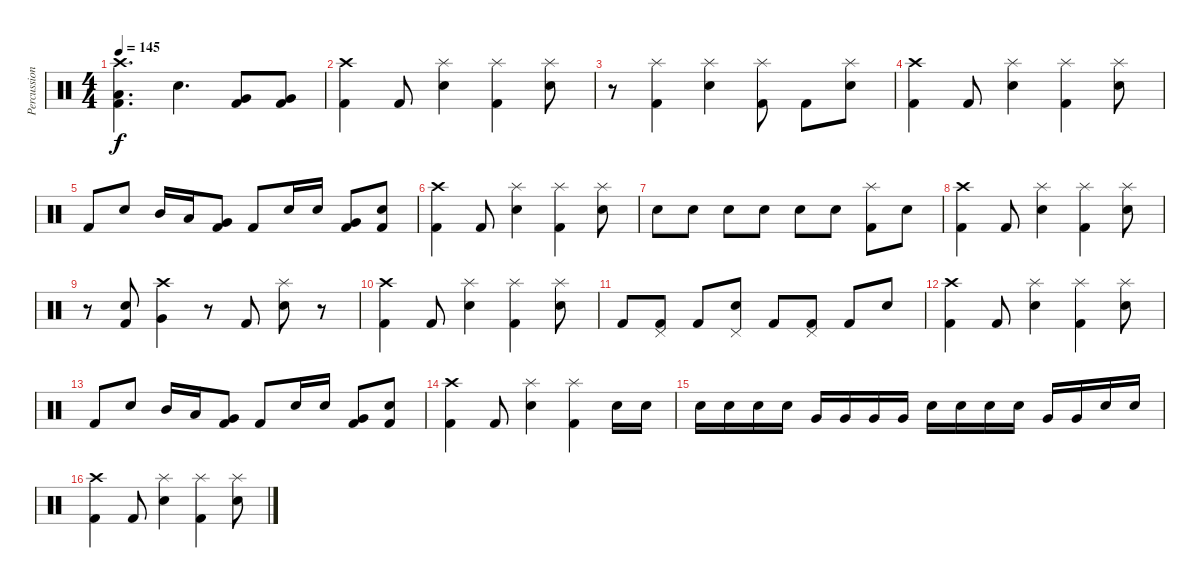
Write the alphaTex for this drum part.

\track ("Percussion" "Percussion") {instrument percussion}
\staff {score}
\articulation defaults
\ts (4 4)
\tempo 145
\clef neutral
\ks c
("Crash high (hit)" "Low Floor Tom (hit)" "Kick (hit) 2").4{d dy f} "Electric Snare (hit)".4{d} ("Very Low Tom (hit)" "Kick (hit) 2").8 ("Very Low Tom (hit)" "Kick (hit) 2").8 |
("Crash high (hit)" "Kick (hit) 2").4 "Kick (hit) 2".8 ("Splash (hit)" "Electric Snare (hit)").4 ("Splash (hit)" "Kick (hit) 2").4 ("Splash (hit)" "Electric Snare (hit)").8 |
r.8 ("Splash (hit)" "Kick (hit) 2").4 ("Splash (hit)" "Electric Snare (hit)").4 ("Splash (hit)" "Kick (hit) 2").8 "Kick (hit) 2".8 ("Splash (hit)" "Electric Snare (hit)").8 |
("Crash high (hit)" "Kick (hit) 2").4 "Kick (hit) 2".8 ("Splash (hit)" "Electric Snare (hit)").4 ("Splash (hit)" "Kick (hit) 2").4 ("Splash (hit)" "Electric Snare (hit)").8 |
"Kick (hit) 2".8 "Electric Snare (hit)".8 "Mid Tom (hit)".16 "Low Tom (hit)".16 ("Very Low Tom (hit)" "Kick (hit) 2").8 "Kick (hit) 2".8 "Electric Snare (hit)".16 "Electric Snare (hit)".16 ("Very Low Tom (hit)" "Kick (hit) 2").8 ("Electric Snare (hit)" "Kick (hit) 2").8 |
("Crash high (hit)" "Kick (hit) 2").4 "Kick (hit) 2".8 ("Splash (hit)" "Electric Snare (hit)").4 ("Splash (hit)" "Kick (hit) 2").4 ("Splash (hit)" "Electric Snare (hit)").8 |
"Electric Snare (hit)".8 "Electric Snare (hit)".8 "Electric Snare (hit)".8 "Electric Snare (hit)".8 "Electric Snare (hit)".8 "Electric Snare (hit)".8 ("Splash (hit)" "Kick (hit) 2").8 "Electric Snare (hit)".8 |
("Crash high (hit)" "Kick (hit) 2").4 "Kick (hit) 2".8 ("Splash (hit)" "Electric Snare (hit)").4 ("Splash (hit)" "Kick (hit) 2").4 ("Splash (hit)" "Electric Snare (hit)").8 |
r.8 ("Electric Snare (hit)" "Kick (hit) 2").8 ("Crash high (hit)" "Very Low Tom (hit)").4 r.8 "Kick (hit) 2".8 ("Splash (hit)" "Electric Snare (hit)").8 r.8 |
("Crash high (hit)" "Kick (hit) 2").4 "Kick (hit) 2".8 ("Splash (hit)" "Electric Snare (hit)").4 ("Splash (hit)" "Kick (hit) 2").4 ("Splash (hit)" "Electric Snare (hit)").8 |
"Kick (hit) 2".8 ("Pedal Hi-Hat (hit)" "Kick (hit) 2").8 "Kick (hit) 2".8 ("Pedal Hi-Hat (hit)" "Electric Snare (hit)").8 "Kick (hit) 2".8 ("Pedal Hi-Hat (hit)" "Kick (hit) 2").8 "Kick (hit) 2".8 "Electric Snare (hit)".8 |
("Crash high (hit)" "Kick (hit) 2").4 "Kick (hit) 2".8 ("Splash (hit)" "Electric Snare (hit)").4 ("Splash (hit)" "Kick (hit) 2").4 ("Splash (hit)" "Electric Snare (hit)").8 |
"Kick (hit) 2".8 "Electric Snare (hit)".8 "Mid Tom (hit)".16 "Low Tom (hit)".16 ("Very Low Tom (hit)" "Kick (hit) 2").8 "Kick (hit) 2".8 "Electric Snare (hit)".16 "Electric Snare (hit)".16 ("Very Low Tom (hit)" "Kick (hit) 2").8 ("Electric Snare (hit)" "Kick (hit) 2").8 |
("Crash high (hit)" "Kick (hit) 2").4 "Kick (hit) 2".8 ("Splash (hit)" "Electric Snare (hit)").4 ("Splash (hit)" "Kick (hit) 2").4 "Electric Snare (hit)".16 "Electric Snare (hit)".16 |
"Electric Snare (hit)".16 "Electric Snare (hit)".16 "Electric Snare (hit)".16 "Electric Snare (hit)".16 "Very Low Tom (hit)".16 "Very Low Tom (hit)".16 "Very Low Tom (hit)".16 "Very Low Tom (hit)".16 "Electric Snare (hit)".16 "Electric Snare (hit)".16 "Electric Snare (hit)".16 "Electric Snare (hit)".16 "Very Low Tom (hit)".16 "Very Low Tom (hit)".16 "Electric Snare (hit)".16 "Electric Snare (hit)".16 |
("Crash high (hit)" "Kick (hit) 2").4 "Kick (hit) 2".8 ("Splash (hit)" "Electric Snare (hit)").4 ("Splash (hit)" "Kick (hit) 2").4 ("Splash (hit)" "Electric Snare (hit)").8
